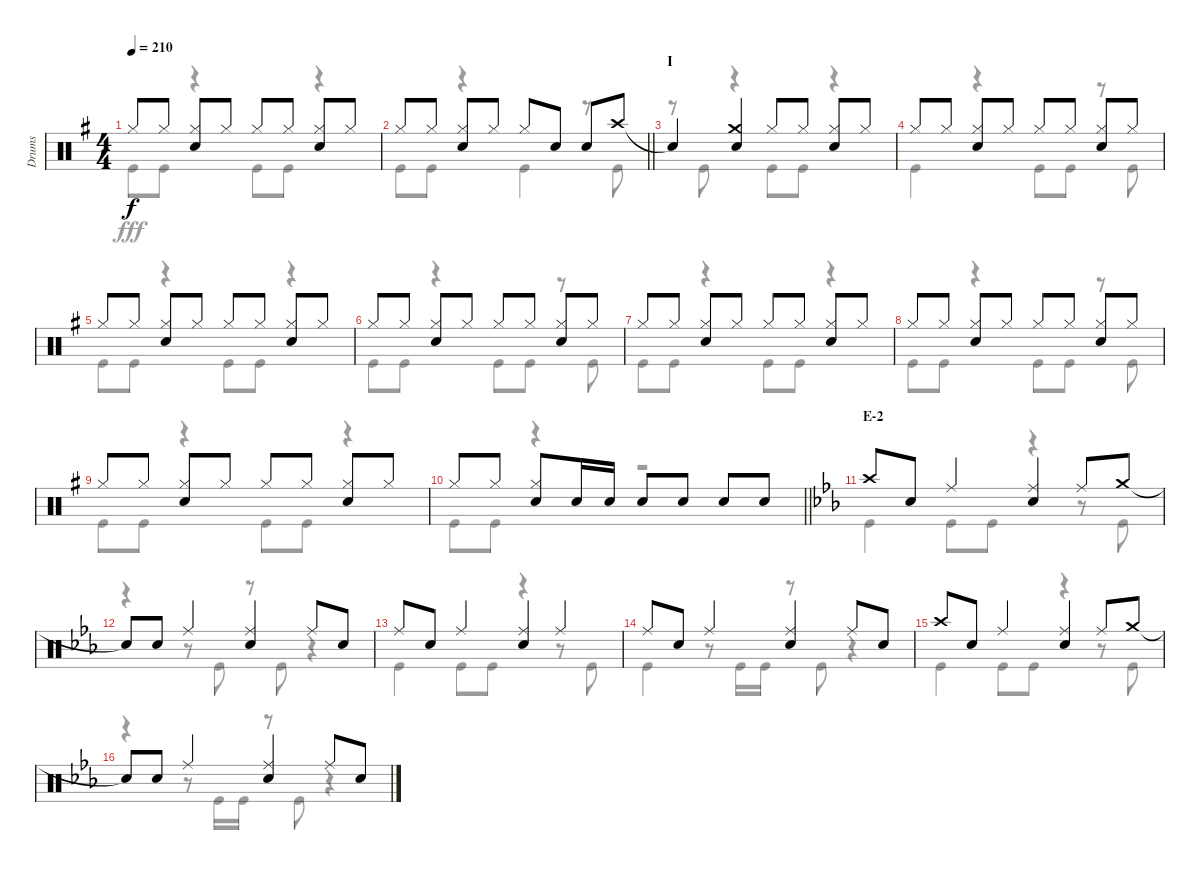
\track ("Drums" "Drums") {instrument percussion}
\staff {score}
\articulation defaults
\voice
\ts (4 4)
\tempo 210
\clef neutral
\ks g "Hi-Hat (closed)".8{dy f} "Hi-Hat (closed)".8
("Hi-Hat (closed)" "Snare (hit) 2").8 "Hi-Hat (closed)".8 "Hi-Hat (closed)".8 "Hi-Hat (closed)".8 ("Hi-Hat (closed)" "Snare (hit) 2").8 "Hi-Hat (closed)".8 |
\barLineRight lightlight "Hi-Hat (closed)".8 "Hi-Hat (closed)".8
("Hi-Hat (closed)" "Snare (hit) 2").8 "Hi-Hat (closed)".8 "Hi-Hat (closed)".8 "Snare (hit) 2".8 "Snare (hit) 2".8 "Crash high (hit)".8 |
\section ("" "I")
"Snare (hit)"{t}.4 ("Crash medium (hit)" "Snare (hit) 2").4 "Hi-Hat (closed)".8 "Hi-Hat (closed)".8 ("Hi-Hat (closed)" "Snare (hit) 2").8 "Hi-Hat (closed)".8 |
"Hi-Hat (closed)".8 "Hi-Hat (closed)".8 ("Hi-Hat (closed)" "Snare (hit) 2").8 "Hi-Hat (closed)".8 "Hi-Hat (closed)".8 "Hi-Hat (closed)".8 ("Hi-Hat (closed)" "Snare (hit) 2").8 "Hi-Hat (closed)".8 |
"Hi-Hat (closed)".8 "Hi-Hat (closed)".8 ("Hi-Hat (closed)" "Snare (hit) 2").8 "Hi-Hat (closed)".8 "Hi-Hat (closed)".8 "Hi-Hat (closed)".8 ("Hi-Hat (closed)" "Snare (hit) 2").8 "Hi-Hat (closed)".8 |
"Hi-Hat (closed)".8 "Hi-Hat (closed)".8 ("Hi-Hat (closed)" "Snare (hit) 2").8 "Hi-Hat (closed)".8 "Hi-Hat (closed)".8 "Hi-Hat (closed)".8 ("Hi-Hat (closed)" "Snare (hit) 2").8 "Hi-Hat (closed)".8 |
"Hi-Hat (closed)".8 "Hi-Hat (closed)".8 ("Hi-Hat (closed)" "Snare (hit) 2").8 "Hi-Hat (closed)".8 "Hi-Hat (closed)".8 "Hi-Hat (closed)".8 ("Hi-Hat (closed)" "Snare (hit) 2").8 "Hi-Hat (closed)".8 |
"Hi-Hat (closed)".8 "Hi-Hat (closed)".8 ("Hi-Hat (closed)" "Snare (hit) 2").8 "Hi-Hat (closed)".8 "Hi-Hat (closed)".8 "Hi-Hat (closed)".8 ("Hi-Hat (closed)" "Snare (hit) 2").8 "Hi-Hat (closed)".8 |
"Hi-Hat (closed)".8 "Hi-Hat (closed)".8 ("Hi-Hat (closed)" "Snare (hit) 2").8 "Hi-Hat (closed)".8 "Hi-Hat (closed)".8 "Hi-Hat (closed)".8 ("Hi-Hat (closed)" "Snare (hit) 2").8 "Hi-Hat (closed)".8 |
\barLineRight lightlight "Hi-Hat (closed)".8 "Hi-Hat (closed)".8
("Hi-Hat (closed)" "Snare (hit) 2").8 "Snare (hit) 2".16 "Snare (hit) 2".16 "Snare (hit) 2".8 "Snare (hit) 2".8 "Snare (hit) 2".8 "Snare (hit) 2".8 |
\section ("" "E-2")
\ks eb "Crash high (hit)".8 "Snare (hit) 2".8 "Ride (middle)".4
("Ride (middle)" "Snare (hit) 2").4 "Ride (middle)".8 "Crash medium (hit)".8 |
"Snare (hit)"{t}.8 "Snare (hit) 2".8 "Ride (middle)".4 ("Ride (middle)" "Snare (hit) 2").4 "Ride (middle)".8 "Snare (hit) 2".8 |
"Ride (middle)".8 "Snare (hit) 2".8 "Ride (middle)".4 ("Ride (middle)" "Snare (hit) 2").4 "Ride (middle)".4 |
"Ride (middle)".8 "Snare (hit) 2".8 "Ride (middle)".4 ("Ride (middle)" "Snare (hit) 2").4 "Ride (middle)".8 "Snare (hit) 2".8 |
"Crash high (hit)".8 "Snare (hit) 2".8 "Ride (middle)".4 ("Ride (middle)" "Snare (hit) 2").4 "Ride (middle)".8 "Crash medium (hit)".8 |
"Snare (hit)"{t}.8 "Snare (hit) 2".8 "Ride (middle)".4 ("Ride (middle)" "Snare (hit) 2").4 "Ride (middle)".8 "Snare (hit) 2".8
\voice
\clef neutral
\ottava regular
\simile none
\ks g "Kick (hit)".8{dy fff} "Kick (hit)".8
r.4 "Kick (hit)".8 "Kick (hit)".8 r.4 |
\barLineRight lightlight "Kick (hit)".8 "Kick (hit)".8
r.4 "Kick (hit)".4 r.8 "Kick (hit)".8 |
r.8 "Kick (hit)".8 r.4 "Kick (hit)".8 "Kick (hit)".8 r.4 |
"Kick (hit)".4 r.4 "Kick (hit)".8 "Kick (hit)".8 r.8 "Kick (hit)".8 |
"Kick (hit)".8 "Kick (hit)".8 r.4 "Kick (hit)".8 "Kick (hit)".8 r.4 |
"Kick (hit)".8 "Kick (hit)".8 r.4 "Kick (hit)".8 "Kick (hit)".8 r.8 "Kick (hit)".8 |
"Kick (hit)".8 "Kick (hit)".8 r.4 "Kick (hit)".8 "Kick (hit)".8 r.4 |
"Kick (hit)".8 "Kick (hit)".8 r.4 "Kick (hit)".8 "Kick (hit)".8 r.8 "Kick (hit)".8 |
"Kick (hit)".8 "Kick (hit)".8 r.4 "Kick (hit)".8 "Kick (hit)".8 r.4 |
\barLineRight lightlight "Kick (hit)".8 "Kick (hit)".8
r.4 r.2 |
\ks eb "Kick (hit)".4 "Kick (hit)".8 "Kick (hit)".8
r.4 r.8 "Kick (hit)".8 |
r.4 r.8 "Kick (hit)".8 r.8 "Kick (hit)".8 r.4 |
"Kick (hit)".4 "Kick (hit)".8 "Kick (hit)".8 r.4 r.8 "Kick (hit)".8 |
"Kick (hit)".4 r.8 "Kick (hit)".16 "Kick (hit)".16 r.8 "Kick (hit)".8 r.4 |
"Kick (hit)".4 "Kick (hit)".8 "Kick (hit)".8 r.4 r.8 "Kick (hit)".8 |
r.4 r.8 "Kick (hit)".16 "Kick (hit)".16 r.8 "Kick (hit)".8 r.4
